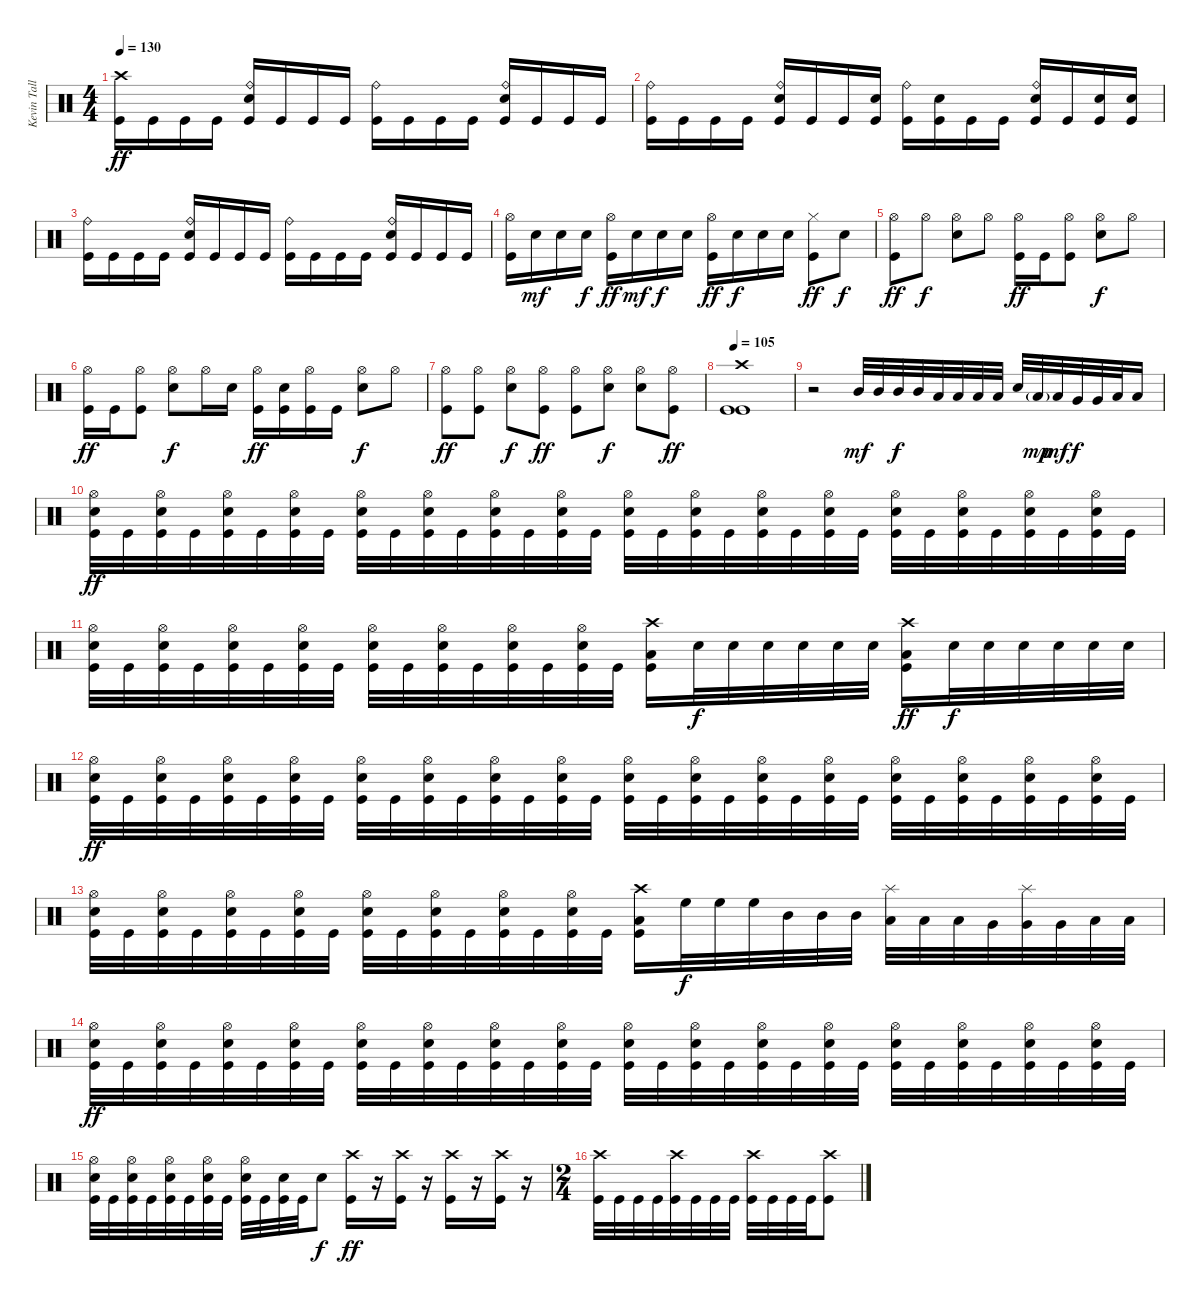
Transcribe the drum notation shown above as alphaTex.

\track ("Kevin Talley" "Kevin Tall") {instrument percussion}
\staff {score}
\articulation defaults
\ts (4 4)
\tempo 130
\clef neutral
\ks c
("Crash high (hit)" "Kick (hit)").16{dy ff} "Kick (hit)".16 "Kick (hit)".16 "Kick (hit)".16 ("Ride (bell)" "Electric Snare (hit)" "Kick (hit)").16 "Kick (hit)".16 "Kick (hit)".16 "Kick (hit)".16 ("Ride (bell)" "Kick (hit)").16 "Kick (hit)".16 "Kick (hit)".16 "Kick (hit)".16 ("Ride (bell)" "Electric Snare (hit)" "Kick (hit)").16 "Kick (hit)".16 "Kick (hit)".16 "Kick (hit)".16 |
("Ride (bell)" "Kick (hit)").16 "Kick (hit)".16 "Kick (hit)".16 "Kick (hit)".16 ("Ride (bell)" "Electric Snare (hit)" "Kick (hit)").16 "Kick (hit)".16 "Kick (hit)".16 ("Electric Snare (hit)" "Kick (hit)").16 ("Ride (bell)" "Kick (hit)").16 ("Electric Snare (hit)" "Kick (hit)").16 "Kick (hit)".16 "Kick (hit)".16 ("Ride (bell)" "Electric Snare (hit)" "Kick (hit)").16 "Kick (hit)".16 ("Electric Snare (hit)" "Kick (hit)").16 ("Electric Snare (hit)" "Kick (hit)").16 |
("Ride (bell)" "Kick (hit)").16 "Kick (hit)".16 "Kick (hit)".16 "Kick (hit)".16 ("Ride (bell)" "Electric Snare (hit)" "Kick (hit)").16 "Kick (hit)".16 "Kick (hit)".16 "Kick (hit)".16 ("Ride (bell)" "Kick (hit)").16 "Kick (hit)".16 "Kick (hit)".16 "Kick (hit)".16 ("Ride (bell)" "Electric Snare (hit)" "Kick (hit)").16 "Kick (hit)".16 "Kick (hit)".16 "Kick (hit)".16 |
("Hi-Hat (open)" "Kick (hit)").16 "Electric Snare (hit)".16{dy mf} "Electric Snare (hit)".16 "Electric Snare (hit)".16{dy f} ("Hi-Hat (open)" "Kick (hit)").16{dy ff} "Electric Snare (hit)".16{dy mf} "Electric Snare (hit)".16{dy f} "Electric Snare (hit)".16 ("Hi-Hat (open)" "Kick (hit)").16{dy ff} "Electric Snare (hit)".16{dy f} "Electric Snare (hit)".16 "Electric Snare (hit)".16 ("Hi-Hat (closed)" "Kick (hit)").8{dy ff} "Electric Snare (hit)".8{dy f} |
("Hi-Hat (open)" "Kick (hit)").8{dy ff} "Hi-Hat (open)".8{dy f} ("Hi-Hat (open)" "Electric Snare (hit)").8 "Hi-Hat (open)".8 ("Hi-Hat (open)" "Kick (hit)").16{dy ff} "Kick (hit)".16 ("Hi-Hat (open)" "Kick (hit)").8 ("Hi-Hat (open)" "Electric Snare (hit)").8{dy f} "Hi-Hat (open)".8 |
("Hi-Hat (open)" "Kick (hit)").16{dy ff} "Kick (hit)".16 ("Hi-Hat (open)" "Kick (hit)").8 ("Hi-Hat (open)" "Electric Snare (hit)").8{dy f} "Hi-Hat (open)".16 "Electric Snare (hit)".16 ("Hi-Hat (open)" "Kick (hit)").16{dy ff} ("Electric Snare (hit)" "Kick (hit)").16 ("Hi-Hat (open)" "Kick (hit)").16 "Kick (hit)".16 ("Hi-Hat (open)" "Electric Snare (hit)").8{dy f} "Hi-Hat (open)".8 |
("Hi-Hat (open)" "Kick (hit)").8{dy ff} ("Hi-Hat (open)" "Kick (hit)").8 ("Hi-Hat (open)" "Electric Snare (hit)").8{dy f} ("Hi-Hat (open)" "Kick (hit)").8{dy ff} ("Hi-Hat (open)" "Kick (hit)").8 ("Hi-Hat (open)" "Electric Snare (hit)").8{dy f} ("Hi-Hat (open)" "Electric Snare (hit)").8 ("Hi-Hat (open)" "Kick (hit)").8{dy ff} |
\tempo 105
("Crash high (hit)" "Kick (hit)" "Kick (hit)").1 |
r.2 "Mid Tom (hit)".32{dy mf} "Mid Tom (hit)".32 "Mid Tom (hit)".32{dy f} "Mid Tom (hit)".32 "Low Tom (hit)".32 "Low Tom (hit)".32 "Low Tom (hit)".32 "Low Tom (hit)".32 "Electric Snare (hit)".32 "Low Tom (hit)"{g}.32{dy mp} "Low Tom (hit)".32{dy mf} "Very Low Tom (hit)".32{dy f} "Very Low Tom (hit)".32 "Low Floor Tom (hit)".32 "Low Floor Tom (hit)".16 |
("Hi-Hat (open)" "Electric Snare (hit)" "Kick (hit)").32{dy ff} "Kick (hit)".32 ("Hi-Hat (open)" "Electric Snare (hit)" "Kick (hit)").32 "Kick (hit)".32 ("Hi-Hat (open)" "Electric Snare (hit)" "Kick (hit)").32 "Kick (hit)".32 ("Hi-Hat (open)" "Electric Snare (hit)" "Kick (hit)").32 "Kick (hit)".32 ("Hi-Hat (open)" "Electric Snare (hit)" "Kick (hit)").32 "Kick (hit)".32 ("Hi-Hat (open)" "Electric Snare (hit)" "Kick (hit)").32 "Kick (hit)".32 ("Hi-Hat (open)" "Electric Snare (hit)" "Kick (hit)").32 "Kick (hit)".32 ("Hi-Hat (open)" "Electric Snare (hit)" "Kick (hit)").32 "Kick (hit)".32 ("Hi-Hat (open)" "Electric Snare (hit)" "Kick (hit)").32 "Kick (hit)".32 ("Hi-Hat (open)" "Electric Snare (hit)" "Kick (hit)").32 "Kick (hit)".32 ("Hi-Hat (open)" "Electric Snare (hit)" "Kick (hit)").32 "Kick (hit)".32 ("Hi-Hat (open)" "Electric Snare (hit)" "Kick (hit)").32 "Kick (hit)".32 ("Hi-Hat (open)" "Electric Snare (hit)" "Kick (hit)").32 "Kick (hit)".32 ("Hi-Hat (open)" "Electric Snare (hit)" "Kick (hit)").32 "Kick (hit)".32 ("Hi-Hat (open)" "Electric Snare (hit)" "Kick (hit)").32 "Kick (hit)".32 ("Hi-Hat (open)" "Electric Snare (hit)" "Kick (hit)").32 "Kick (hit)".32 |
("Hi-Hat (open)" "Electric Snare (hit)" "Kick (hit)").32 "Kick (hit)".32 ("Hi-Hat (open)" "Electric Snare (hit)" "Kick (hit)").32 "Kick (hit)".32 ("Hi-Hat (open)" "Electric Snare (hit)" "Kick (hit)").32 "Kick (hit)".32 ("Hi-Hat (open)" "Electric Snare (hit)" "Kick (hit)").32 "Kick (hit)".32 ("Hi-Hat (open)" "Electric Snare (hit)" "Kick (hit)").32 "Kick (hit)".32 ("Hi-Hat (open)" "Electric Snare (hit)" "Kick (hit)").32 "Kick (hit)".32 ("Hi-Hat (open)" "Electric Snare (hit)" "Kick (hit)").32 "Kick (hit)".32 ("Hi-Hat (open)" "Electric Snare (hit)" "Kick (hit)").32 "Kick (hit)".32 ("Crash high (hit)" "Low Floor Tom (hit)" "Kick (hit)").16 "Electric Snare (hit)".32{dy f} "Electric Snare (hit)".32 "Electric Snare (hit)".32 "Electric Snare (hit)".32 "Electric Snare (hit)".32 "Electric Snare (hit)".32 ("Crash high (hit)" "Low Floor Tom (hit)" "Kick (hit)").16{dy ff} "Electric Snare (hit)".32{dy f} "Electric Snare (hit)".32 "Electric Snare (hit)".32 "Electric Snare (hit)".32 "Electric Snare (hit)".32 "Electric Snare (hit)".32 |
("Hi-Hat (open)" "Electric Snare (hit)" "Kick (hit)").32{dy ff} "Kick (hit)".32 ("Hi-Hat (open)" "Electric Snare (hit)" "Kick (hit)").32 "Kick (hit)".32 ("Hi-Hat (open)" "Electric Snare (hit)" "Kick (hit)").32 "Kick (hit)".32 ("Hi-Hat (open)" "Electric Snare (hit)" "Kick (hit)").32 "Kick (hit)".32 ("Hi-Hat (open)" "Electric Snare (hit)" "Kick (hit)").32 "Kick (hit)".32 ("Hi-Hat (open)" "Electric Snare (hit)" "Kick (hit)").32 "Kick (hit)".32 ("Hi-Hat (open)" "Electric Snare (hit)" "Kick (hit)").32 "Kick (hit)".32 ("Hi-Hat (open)" "Electric Snare (hit)" "Kick (hit)").32 "Kick (hit)".32 ("Hi-Hat (open)" "Electric Snare (hit)" "Kick (hit)").32 "Kick (hit)".32 ("Hi-Hat (open)" "Electric Snare (hit)" "Kick (hit)").32 "Kick (hit)".32 ("Hi-Hat (open)" "Electric Snare (hit)" "Kick (hit)").32 "Kick (hit)".32 ("Hi-Hat (open)" "Electric Snare (hit)" "Kick (hit)").32 "Kick (hit)".32 ("Hi-Hat (open)" "Electric Snare (hit)" "Kick (hit)").32 "Kick (hit)".32 ("Hi-Hat (open)" "Electric Snare (hit)" "Kick (hit)").32 "Kick (hit)".32 ("Hi-Hat (open)" "Electric Snare (hit)" "Kick (hit)").32 "Kick (hit)".32 ("Hi-Hat (open)" "Electric Snare (hit)" "Kick (hit)").32 "Kick (hit)".32 |
("Hi-Hat (open)" "Electric Snare (hit)" "Kick (hit)").32 "Kick (hit)".32 ("Hi-Hat (open)" "Electric Snare (hit)" "Kick (hit)").32 "Kick (hit)".32 ("Hi-Hat (open)" "Electric Snare (hit)" "Kick (hit)").32 "Kick (hit)".32 ("Hi-Hat (open)" "Electric Snare (hit)" "Kick (hit)").32 "Kick (hit)".32 ("Hi-Hat (open)" "Electric Snare (hit)" "Kick (hit)").32 "Kick (hit)".32 ("Hi-Hat (open)" "Electric Snare (hit)" "Kick (hit)").32 "Kick (hit)".32 ("Hi-Hat (open)" "Electric Snare (hit)" "Kick (hit)").32 "Kick (hit)".32 ("Hi-Hat (open)" "Electric Snare (hit)" "Kick (hit)").32 "Kick (hit)".32 ("Crash high (hit)" "Low Floor Tom (hit)" "Kick (hit)").16 "High Floor Tom (hit)".32{dy f} "High Floor Tom (hit)".32 "High Floor Tom (hit)".32 "Mid Tom (hit)".32 "Mid Tom (hit)".32 "Mid Tom (hit)".32 ("Splash (hit)" "Low Tom (hit)").32 "Low Tom (hit)".32 "Low Tom (hit)".32 "Very Low Tom (hit)".32 ("Splash (hit)" "Very Low Tom (hit)").32 "Very Low Tom (hit)".32 "Low Floor Tom (hit)".32 "Low Floor Tom (hit)".32 |
("Hi-Hat (open)" "Electric Snare (hit)" "Kick (hit)").32{dy ff} "Kick (hit)".32 ("Hi-Hat (open)" "Electric Snare (hit)" "Kick (hit)").32 "Kick (hit)".32 ("Hi-Hat (open)" "Electric Snare (hit)" "Kick (hit)").32 "Kick (hit)".32 ("Hi-Hat (open)" "Electric Snare (hit)" "Kick (hit)").32 "Kick (hit)".32 ("Hi-Hat (open)" "Electric Snare (hit)" "Kick (hit)").32 "Kick (hit)".32 ("Hi-Hat (open)" "Electric Snare (hit)" "Kick (hit)").32 "Kick (hit)".32 ("Hi-Hat (open)" "Electric Snare (hit)" "Kick (hit)").32 "Kick (hit)".32 ("Hi-Hat (open)" "Electric Snare (hit)" "Kick (hit)").32 "Kick (hit)".32 ("Hi-Hat (open)" "Electric Snare (hit)" "Kick (hit)").32 "Kick (hit)".32 ("Hi-Hat (open)" "Electric Snare (hit)" "Kick (hit)").32 "Kick (hit)".32 ("Hi-Hat (open)" "Electric Snare (hit)" "Kick (hit)").32 "Kick (hit)".32 ("Hi-Hat (open)" "Electric Snare (hit)" "Kick (hit)").32 "Kick (hit)".32 ("Hi-Hat (open)" "Electric Snare (hit)" "Kick (hit)").32 "Kick (hit)".32 ("Hi-Hat (open)" "Electric Snare (hit)" "Kick (hit)").32 "Kick (hit)".32 ("Hi-Hat (open)" "Electric Snare (hit)" "Kick (hit)").32 "Kick (hit)".32 ("Hi-Hat (open)" "Electric Snare (hit)" "Kick (hit)").32 "Kick (hit)".32 |
("Hi-Hat (open)" "Electric Snare (hit)" "Kick (hit)").32 "Kick (hit)".32 ("Hi-Hat (open)" "Electric Snare (hit)" "Kick (hit)").32 "Kick (hit)".32 ("Hi-Hat (open)" "Electric Snare (hit)" "Kick (hit)").32 "Kick (hit)".32 ("Hi-Hat (open)" "Electric Snare (hit)" "Kick (hit)").32 "Kick (hit)".32 ("Hi-Hat (open)" "Electric Snare (hit)" "Kick (hit)").32 "Kick (hit)".32 ("Electric Snare (hit)" "Kick (hit)").32 "Kick (hit)".32 "Electric Snare (hit)".8{dy f} ("Crash high (hit)" "Kick (hit)").16{dy ff} r.16{volume 0} ("Crash high (hit)" "Kick (hit)").16{volume 16} r.16{volume 0} ("Crash high (hit)" "Kick (hit)").16{volume 16} r.16{volume 0} ("Crash high (hit)" "Kick (hit)").16{volume 16} r.16{volume 0} |
\ts (2 4)
("Crash high (hit)" "Kick (hit)").32{volume 16} "Kick (hit)".32 "Kick (hit)".32 "Kick (hit)".32 ("Crash high (hit)" "Kick (hit)").32 "Kick (hit)".32 "Kick (hit)".32 "Kick (hit)".32 ("Crash high (hit)" "Kick (hit)").32 "Kick (hit)".32 "Kick (hit)".32 "Kick (hit)".32 ("Crash high (hit)" "Kick (hit)").8
